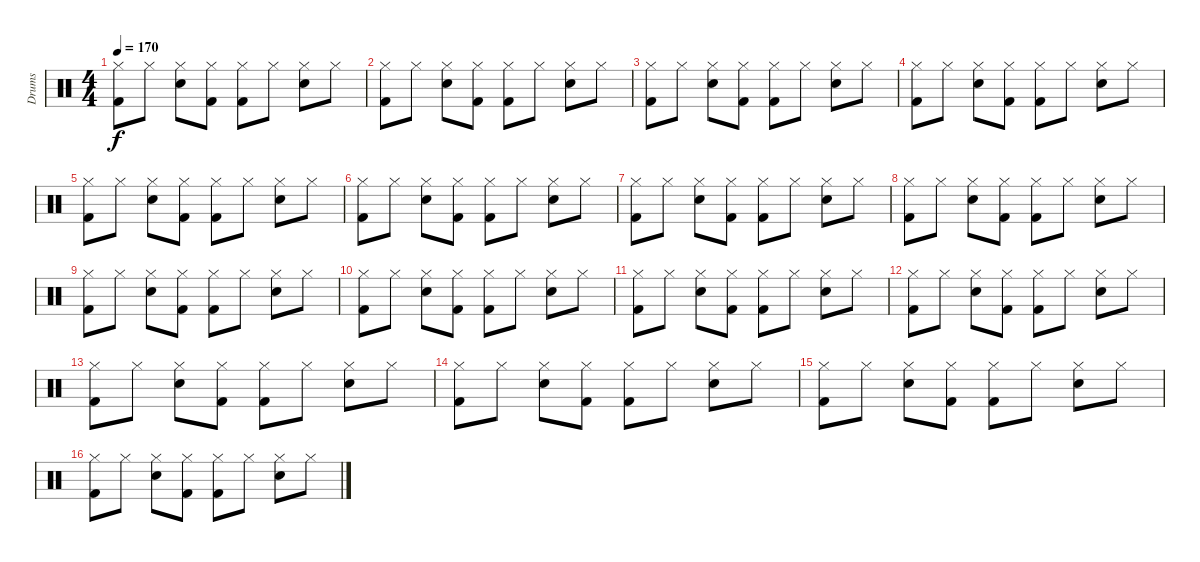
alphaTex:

\track ("Drums" "Drums") {instrument percussion}
\staff {score}
\articulation defaults
\ts (4 4)
\tempo 170
\clef neutral
\ks c
("Hi-Hat (closed)" "Kick (hit) 2").8{dy f} "Hi-Hat (closed)".8 ("Hi-Hat (closed)" "Snare (hit) 2").8 ("Hi-Hat (closed)" "Kick (hit) 2").8 ("Hi-Hat (closed)" "Kick (hit) 2").8 "Hi-Hat (closed)".8 ("Hi-Hat (closed)" "Snare (hit) 2").8 "Hi-Hat (closed)".8 |
("Hi-Hat (closed)" "Kick (hit) 2").8 "Hi-Hat (closed)".8 ("Hi-Hat (closed)" "Snare (hit) 2").8 ("Hi-Hat (closed)" "Kick (hit) 2").8 ("Hi-Hat (closed)" "Kick (hit) 2").8 "Hi-Hat (closed)".8 ("Hi-Hat (closed)" "Snare (hit) 2").8 "Hi-Hat (closed)".8 |
("Hi-Hat (closed)" "Kick (hit) 2").8 "Hi-Hat (closed)".8 ("Hi-Hat (closed)" "Snare (hit) 2").8 ("Hi-Hat (closed)" "Kick (hit) 2").8 ("Hi-Hat (closed)" "Kick (hit) 2").8 "Hi-Hat (closed)".8 ("Hi-Hat (closed)" "Snare (hit) 2").8 "Hi-Hat (closed)".8 |
("Hi-Hat (closed)" "Kick (hit) 2").8 "Hi-Hat (closed)".8 ("Hi-Hat (closed)" "Snare (hit) 2").8 ("Hi-Hat (closed)" "Kick (hit) 2").8 ("Hi-Hat (closed)" "Kick (hit) 2").8 "Hi-Hat (closed)".8 ("Hi-Hat (closed)" "Snare (hit) 2").8 "Hi-Hat (closed)".8 |
("Hi-Hat (closed)" "Kick (hit) 2").8 "Hi-Hat (closed)".8 ("Hi-Hat (closed)" "Snare (hit) 2").8 ("Hi-Hat (closed)" "Kick (hit) 2").8 ("Hi-Hat (closed)" "Kick (hit) 2").8 "Hi-Hat (closed)".8 ("Hi-Hat (closed)" "Snare (hit) 2").8 "Hi-Hat (closed)".8 |
("Hi-Hat (closed)" "Kick (hit) 2").8 "Hi-Hat (closed)".8 ("Hi-Hat (closed)" "Snare (hit) 2").8 ("Hi-Hat (closed)" "Kick (hit) 2").8 ("Hi-Hat (closed)" "Kick (hit) 2").8 "Hi-Hat (closed)".8 ("Hi-Hat (closed)" "Snare (hit) 2").8 "Hi-Hat (closed)".8 |
("Hi-Hat (closed)" "Kick (hit) 2").8 "Hi-Hat (closed)".8 ("Hi-Hat (closed)" "Snare (hit) 2").8 ("Hi-Hat (closed)" "Kick (hit) 2").8 ("Hi-Hat (closed)" "Kick (hit) 2").8 "Hi-Hat (closed)".8 ("Hi-Hat (closed)" "Snare (hit) 2").8 "Hi-Hat (closed)".8 |
("Hi-Hat (closed)" "Kick (hit) 2").8 "Hi-Hat (closed)".8 ("Hi-Hat (closed)" "Snare (hit) 2").8 ("Hi-Hat (closed)" "Kick (hit) 2").8 ("Hi-Hat (closed)" "Kick (hit) 2").8 "Hi-Hat (closed)".8 ("Hi-Hat (closed)" "Snare (hit) 2").8 "Hi-Hat (closed)".8 |
("Hi-Hat (closed)" "Kick (hit) 2").8 "Hi-Hat (closed)".8 ("Hi-Hat (closed)" "Snare (hit) 2").8 ("Hi-Hat (closed)" "Kick (hit) 2").8 ("Hi-Hat (closed)" "Kick (hit) 2").8 "Hi-Hat (closed)".8 ("Hi-Hat (closed)" "Snare (hit) 2").8 "Hi-Hat (closed)".8 |
("Hi-Hat (closed)" "Kick (hit) 2").8 "Hi-Hat (closed)".8 ("Hi-Hat (closed)" "Snare (hit) 2").8 ("Hi-Hat (closed)" "Kick (hit) 2").8 ("Hi-Hat (closed)" "Kick (hit) 2").8 "Hi-Hat (closed)".8 ("Hi-Hat (closed)" "Snare (hit) 2").8 "Hi-Hat (closed)".8 |
("Hi-Hat (closed)" "Kick (hit) 2").8 "Hi-Hat (closed)".8 ("Hi-Hat (closed)" "Snare (hit) 2").8 ("Hi-Hat (closed)" "Kick (hit) 2").8 ("Hi-Hat (closed)" "Kick (hit) 2").8 "Hi-Hat (closed)".8 ("Hi-Hat (closed)" "Snare (hit) 2").8 "Hi-Hat (closed)".8 |
("Hi-Hat (closed)" "Kick (hit) 2").8 "Hi-Hat (closed)".8 ("Hi-Hat (closed)" "Snare (hit) 2").8 ("Hi-Hat (closed)" "Kick (hit) 2").8 ("Hi-Hat (closed)" "Kick (hit) 2").8 "Hi-Hat (closed)".8 ("Hi-Hat (closed)" "Snare (hit) 2").8 "Hi-Hat (closed)".8 |
("Hi-Hat (closed)" "Kick (hit) 2").8 "Hi-Hat (closed)".8 ("Hi-Hat (closed)" "Snare (hit) 2").8 ("Hi-Hat (closed)" "Kick (hit) 2").8 ("Hi-Hat (closed)" "Kick (hit) 2").8 "Hi-Hat (closed)".8 ("Hi-Hat (closed)" "Snare (hit) 2").8 "Hi-Hat (closed)".8 |
("Hi-Hat (closed)" "Kick (hit) 2").8 "Hi-Hat (closed)".8 ("Hi-Hat (closed)" "Snare (hit) 2").8 ("Hi-Hat (closed)" "Kick (hit) 2").8 ("Hi-Hat (closed)" "Kick (hit) 2").8 "Hi-Hat (closed)".8 ("Hi-Hat (closed)" "Snare (hit) 2").8 "Hi-Hat (closed)".8 |
("Hi-Hat (closed)" "Kick (hit) 2").8 "Hi-Hat (closed)".8 ("Hi-Hat (closed)" "Snare (hit) 2").8 ("Hi-Hat (closed)" "Kick (hit) 2").8 ("Hi-Hat (closed)" "Kick (hit) 2").8 "Hi-Hat (closed)".8 ("Hi-Hat (closed)" "Snare (hit) 2").8 "Hi-Hat (closed)".8 |
("Hi-Hat (closed)" "Kick (hit) 2").8 "Hi-Hat (closed)".8 ("Hi-Hat (closed)" "Snare (hit) 2").8 ("Hi-Hat (closed)" "Kick (hit) 2").8 ("Hi-Hat (closed)" "Kick (hit) 2").8 "Hi-Hat (closed)".8 ("Hi-Hat (closed)" "Snare (hit) 2").8 "Hi-Hat (closed)".8
